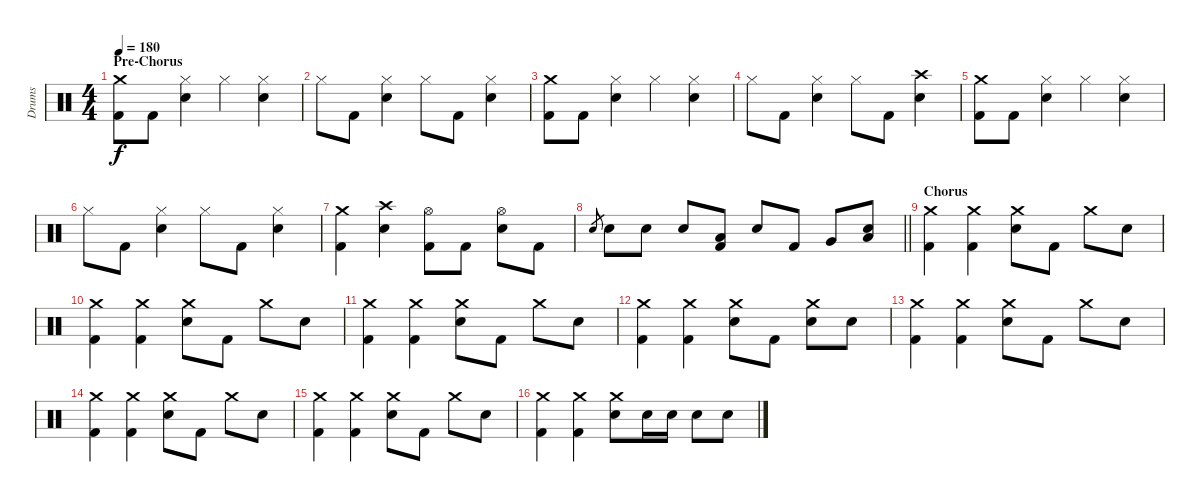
\track ("Drums" "Drums") {instrument percussion}
\staff {score}
\articulation defaults
\ts (4 4)
\section ("" "Pre-Chorus")
\tempo 180
\clef neutral
\ks c
("Crash medium (hit)" "Kick (hit) 2").8{dy f} "Kick (hit) 2".8 ("Hi-Hat (closed)" "Electric Snare (hit)").4 "Hi-Hat (closed)".4 ("Hi-Hat (closed)" "Electric Snare (hit)").4 |
"Hi-Hat (closed)".8 "Kick (hit) 2".8 ("Hi-Hat (closed)" "Electric Snare (hit)").4 "Hi-Hat (closed)".8 "Kick (hit) 2".8 ("Hi-Hat (closed)" "Electric Snare (hit)").4 |
("Crash medium (hit)" "Kick (hit) 2").8 "Kick (hit) 2".8 ("Hi-Hat (closed)" "Electric Snare (hit)").4 "Hi-Hat (closed)".4 ("Hi-Hat (closed)" "Electric Snare (hit)").4 |
"Hi-Hat (closed)".8 "Kick (hit) 2".8 ("Hi-Hat (closed)" "Electric Snare (hit)").4 "Hi-Hat (closed)".8 "Kick (hit) 2".8 ("Crash high (hit)" "Electric Snare (hit)").4 |
("Crash medium (hit)" "Kick (hit) 2").8 "Kick (hit) 2".8 ("Hi-Hat (closed)" "Electric Snare (hit)").4 "Hi-Hat (closed)".4 ("Hi-Hat (closed)" "Electric Snare (hit)").4 |
"Hi-Hat (closed)".8 "Kick (hit) 2".8 ("Hi-Hat (closed)" "Electric Snare (hit)").4 "Hi-Hat (closed)".8 "Kick (hit) 2".8 ("Hi-Hat (closed)" "Electric Snare (hit)").4 |
("Crash medium (hit)" "Kick (hit) 2").4 ("Crash high (hit)" "Electric Snare (hit)").4 ("Hi-Hat (open)" "Kick (hit) 2").8 "Kick (hit) 2".8 ("Hi-Hat (open)" "Electric Snare (hit)").8 "Kick (hit) 2".8 |
\barLineRight lightlight "Electric Snare (hit)".8{gr} "Electric Snare (hit)".8 "Electric Snare (hit)".8 "Electric Snare (hit)".8
("Low Floor Tom (hit)" "Kick (hit) 2").8 "Electric Snare (hit)".8 "Kick (hit) 2".8 "Very Low Tom (hit)".8 ("Electric Snare (hit)" "Low Tom (hit)").8 |
\section ("" "Chorus")
("Crash medium (hit)" "Kick (hit) 2").4 ("Crash medium (hit)" "Kick (hit) 2").4 ("Crash medium (hit)" "Electric Snare (hit)").8 "Kick (hit) 2".8 "Crash medium (hit)".8 "Electric Snare (hit)".8 |
("Crash medium (hit)" "Kick (hit) 2").4 ("Crash medium (hit)" "Kick (hit) 2").4 ("Crash medium (hit)" "Electric Snare (hit)").8 "Kick (hit) 2".8 "Crash medium (hit)".8 "Electric Snare (hit)".8 |
("Crash medium (hit)" "Kick (hit) 2").4 ("Crash medium (hit)" "Kick (hit) 2").4 ("Crash medium (hit)" "Electric Snare (hit)").8 "Kick (hit) 2".8 "Crash medium (hit)".8 "Electric Snare (hit)".8 |
("Crash medium (hit)" "Kick (hit) 2").4 ("Crash medium (hit)" "Kick (hit) 2").4 ("Crash medium (hit)" "Electric Snare (hit)").8 "Kick (hit) 2".8 ("Crash medium (hit)" "Electric Snare (hit)").8 "Electric Snare (hit)".8 |
("Crash medium (hit)" "Kick (hit) 2").4 ("Crash medium (hit)" "Kick (hit) 2").4 ("Crash medium (hit)" "Electric Snare (hit)").8 "Kick (hit) 2".8 "Crash medium (hit)".8 "Electric Snare (hit)".8 |
("Crash medium (hit)" "Kick (hit) 2").4 ("Crash medium (hit)" "Kick (hit) 2").4 ("Crash medium (hit)" "Electric Snare (hit)").8 "Kick (hit) 2".8 "Crash medium (hit)".8 "Electric Snare (hit)".8 |
("Crash medium (hit)" "Kick (hit) 2").4 ("Crash medium (hit)" "Kick (hit) 2").4 ("Crash medium (hit)" "Electric Snare (hit)").8 "Kick (hit) 2".8 "Crash medium (hit)".8 "Electric Snare (hit)".8 |
("Crash medium (hit)" "Kick (hit) 2").4 ("Crash medium (hit)" "Kick (hit) 2").4 ("Crash medium (hit)" "Electric Snare (hit)").8 "Electric Snare (hit)".16 "Electric Snare (hit)".16 "Electric Snare (hit)".8 "Electric Snare (hit)".8
